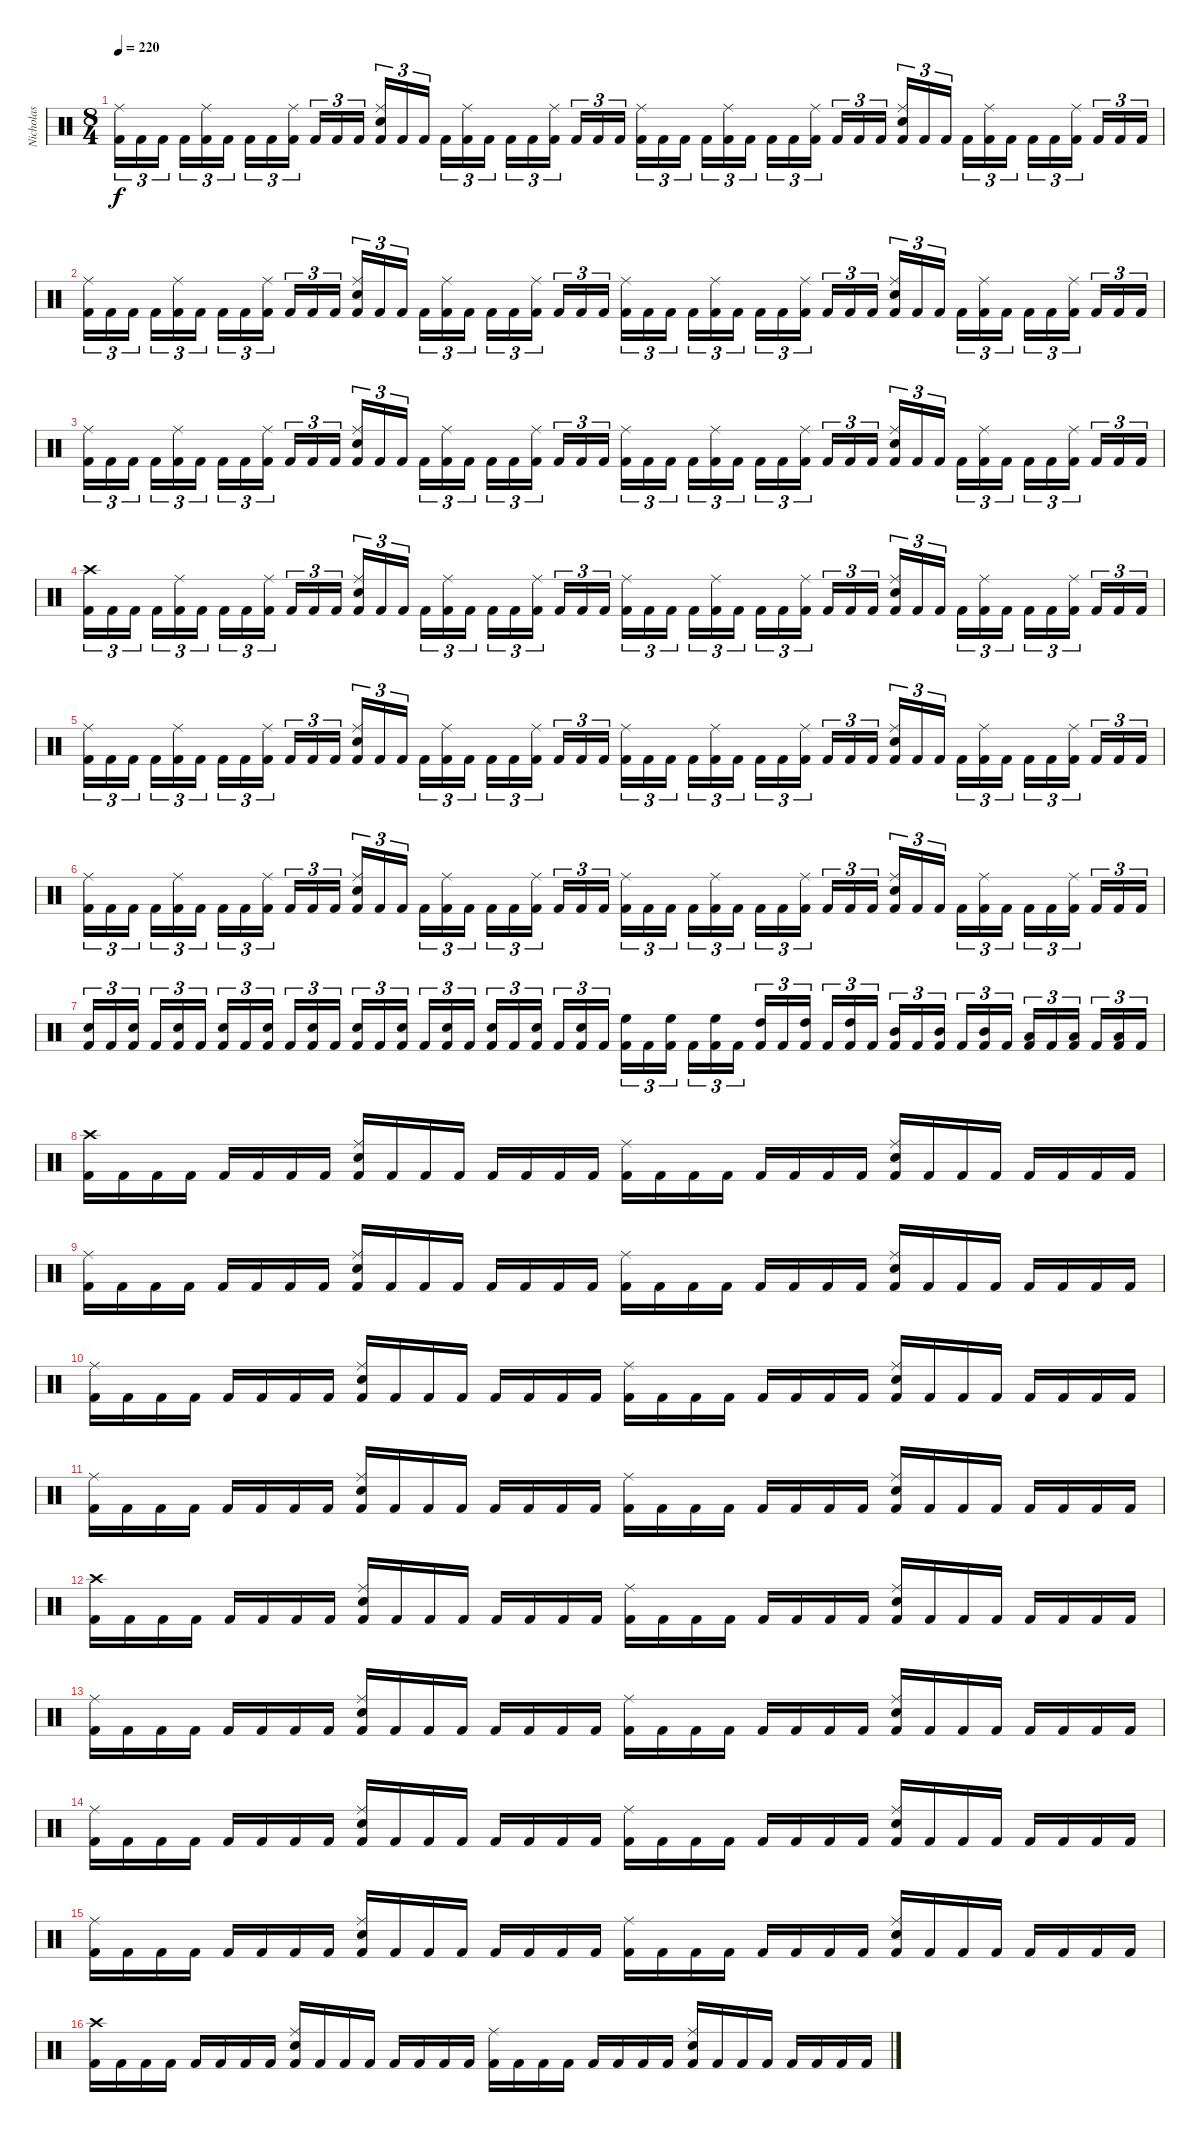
\track ("Nicholas" "Nicholas") {instrument percussion}
\staff {score}
\articulation defaults
\ts (8 4)
\tempo 220
\clef neutral
\ks c
("Kick (hit) 2" "Ride (middle)").16{tu (3 2) dy f} "Kick (hit) 2".16{tu (3 2)} "Kick (hit) 2".16{tu (3 2)} "Kick (hit) 2".16{tu (3 2)} ("Kick (hit) 2" "Ride (middle)").16{tu (3 2)} "Kick (hit) 2".16{tu (3 2)} "Kick (hit) 2".16{tu (3 2)} "Kick (hit) 2".16{tu (3 2)} ("Kick (hit) 2" "Ride (middle)").16{tu (3 2)} "Kick (hit) 2".16{tu (3 2)} "Kick (hit) 2".16{tu (3 2)} "Kick (hit) 2".16{tu (3 2)} ("Kick (hit) 2" "Snare (hit) 2" "Ride (middle)").16{tu (3 2)} "Kick (hit) 2".16{tu (3 2)} "Kick (hit) 2".16{tu (3 2)} "Kick (hit) 2".16{tu (3 2)} ("Kick (hit) 2" "Ride (middle)").16{tu (3 2)} "Kick (hit) 2".16{tu (3 2)} "Kick (hit) 2".16{tu (3 2)} "Kick (hit) 2".16{tu (3 2)} ("Kick (hit) 2" "Ride (middle)").16{tu (3 2)} "Kick (hit) 2".16{tu (3 2)} "Kick (hit) 2".16{tu (3 2)} "Kick (hit) 2".16{tu (3 2)} ("Kick (hit) 2" "Ride (middle)").16{tu (3 2)} "Kick (hit) 2".16{tu (3 2)} "Kick (hit) 2".16{tu (3 2)} "Kick (hit) 2".16{tu (3 2)} ("Kick (hit) 2" "Ride (middle)").16{tu (3 2)} "Kick (hit) 2".16{tu (3 2)} "Kick (hit) 2".16{tu (3 2)} "Kick (hit) 2".16{tu (3 2)} ("Kick (hit) 2" "Ride (middle)").16{tu (3 2)} "Kick (hit) 2".16{tu (3 2)} "Kick (hit) 2".16{tu (3 2)} "Kick (hit) 2".16{tu (3 2)} ("Kick (hit) 2" "Snare (hit) 2" "Ride (middle)").16{tu (3 2)} "Kick (hit) 2".16{tu (3 2)} "Kick (hit) 2".16{tu (3 2)} "Kick (hit) 2".16{tu (3 2)} ("Kick (hit) 2" "Ride (middle)").16{tu (3 2)} "Kick (hit) 2".16{tu (3 2)} "Kick (hit) 2".16{tu (3 2)} "Kick (hit) 2".16{tu (3 2)} ("Kick (hit) 2" "Ride (middle)").16{tu (3 2)} "Kick (hit) 2".16{tu (3 2)} "Kick (hit) 2".16{tu (3 2)} "Kick (hit) 2".16{tu (3 2)} |
("Kick (hit) 2" "Ride (middle)").16{tu (3 2)} "Kick (hit) 2".16{tu (3 2)} "Kick (hit) 2".16{tu (3 2)} "Kick (hit) 2".16{tu (3 2)} ("Kick (hit) 2" "Ride (middle)").16{tu (3 2)} "Kick (hit) 2".16{tu (3 2)} "Kick (hit) 2".16{tu (3 2)} "Kick (hit) 2".16{tu (3 2)} ("Kick (hit) 2" "Ride (middle)").16{tu (3 2)} "Kick (hit) 2".16{tu (3 2)} "Kick (hit) 2".16{tu (3 2)} "Kick (hit) 2".16{tu (3 2)} ("Kick (hit) 2" "Snare (hit) 2" "Ride (middle)").16{tu (3 2)} "Kick (hit) 2".16{tu (3 2)} "Kick (hit) 2".16{tu (3 2)} "Kick (hit) 2".16{tu (3 2)} ("Kick (hit) 2" "Ride (middle)").16{tu (3 2)} "Kick (hit) 2".16{tu (3 2)} "Kick (hit) 2".16{tu (3 2)} "Kick (hit) 2".16{tu (3 2)} ("Kick (hit) 2" "Ride (middle)").16{tu (3 2)} "Kick (hit) 2".16{tu (3 2)} "Kick (hit) 2".16{tu (3 2)} "Kick (hit) 2".16{tu (3 2)} ("Kick (hit) 2" "Ride (middle)").16{tu (3 2)} "Kick (hit) 2".16{tu (3 2)} "Kick (hit) 2".16{tu (3 2)} "Kick (hit) 2".16{tu (3 2)} ("Kick (hit) 2" "Ride (middle)").16{tu (3 2)} "Kick (hit) 2".16{tu (3 2)} "Kick (hit) 2".16{tu (3 2)} "Kick (hit) 2".16{tu (3 2)} ("Kick (hit) 2" "Ride (middle)").16{tu (3 2)} "Kick (hit) 2".16{tu (3 2)} "Kick (hit) 2".16{tu (3 2)} "Kick (hit) 2".16{tu (3 2)} ("Kick (hit) 2" "Snare (hit) 2" "Ride (middle)").16{tu (3 2)} "Kick (hit) 2".16{tu (3 2)} "Kick (hit) 2".16{tu (3 2)} "Kick (hit) 2".16{tu (3 2)} ("Kick (hit) 2" "Ride (middle)").16{tu (3 2)} "Kick (hit) 2".16{tu (3 2)} "Kick (hit) 2".16{tu (3 2)} "Kick (hit) 2".16{tu (3 2)} ("Kick (hit) 2" "Ride (middle)").16{tu (3 2)} "Kick (hit) 2".16{tu (3 2)} "Kick (hit) 2".16{tu (3 2)} "Kick (hit) 2".16{tu (3 2)} |
("Kick (hit) 2" "Ride (middle)").16{tu (3 2)} "Kick (hit) 2".16{tu (3 2)} "Kick (hit) 2".16{tu (3 2)} "Kick (hit) 2".16{tu (3 2)} ("Kick (hit) 2" "Ride (middle)").16{tu (3 2)} "Kick (hit) 2".16{tu (3 2)} "Kick (hit) 2".16{tu (3 2)} "Kick (hit) 2".16{tu (3 2)} ("Kick (hit) 2" "Ride (middle)").16{tu (3 2)} "Kick (hit) 2".16{tu (3 2)} "Kick (hit) 2".16{tu (3 2)} "Kick (hit) 2".16{tu (3 2)} ("Kick (hit) 2" "Snare (hit) 2" "Ride (middle)").16{tu (3 2)} "Kick (hit) 2".16{tu (3 2)} "Kick (hit) 2".16{tu (3 2)} "Kick (hit) 2".16{tu (3 2)} ("Kick (hit) 2" "Ride (middle)").16{tu (3 2)} "Kick (hit) 2".16{tu (3 2)} "Kick (hit) 2".16{tu (3 2)} "Kick (hit) 2".16{tu (3 2)} ("Kick (hit) 2" "Ride (middle)").16{tu (3 2)} "Kick (hit) 2".16{tu (3 2)} "Kick (hit) 2".16{tu (3 2)} "Kick (hit) 2".16{tu (3 2)} ("Kick (hit) 2" "Ride (middle)").16{tu (3 2)} "Kick (hit) 2".16{tu (3 2)} "Kick (hit) 2".16{tu (3 2)} "Kick (hit) 2".16{tu (3 2)} ("Kick (hit) 2" "Ride (middle)").16{tu (3 2)} "Kick (hit) 2".16{tu (3 2)} "Kick (hit) 2".16{tu (3 2)} "Kick (hit) 2".16{tu (3 2)} ("Kick (hit) 2" "Ride (middle)").16{tu (3 2)} "Kick (hit) 2".16{tu (3 2)} "Kick (hit) 2".16{tu (3 2)} "Kick (hit) 2".16{tu (3 2)} ("Kick (hit) 2" "Snare (hit) 2" "Ride (middle)").16{tu (3 2)} "Kick (hit) 2".16{tu (3 2)} "Kick (hit) 2".16{tu (3 2)} "Kick (hit) 2".16{tu (3 2)} ("Kick (hit) 2" "Ride (middle)").16{tu (3 2)} "Kick (hit) 2".16{tu (3 2)} "Kick (hit) 2".16{tu (3 2)} "Kick (hit) 2".16{tu (3 2)} ("Kick (hit) 2" "Ride (middle)").16{tu (3 2)} "Kick (hit) 2".16{tu (3 2)} "Kick (hit) 2".16{tu (3 2)} "Kick (hit) 2".16{tu (3 2)} |
("Kick (hit) 2" "Crash high (hit)").16{tu (3 2)} "Kick (hit) 2".16{tu (3 2)} "Kick (hit) 2".16{tu (3 2)} "Kick (hit) 2".16{tu (3 2)} ("Kick (hit) 2" "Ride (middle)").16{tu (3 2)} "Kick (hit) 2".16{tu (3 2)} "Kick (hit) 2".16{tu (3 2)} "Kick (hit) 2".16{tu (3 2)} ("Kick (hit) 2" "Ride (middle)").16{tu (3 2)} "Kick (hit) 2".16{tu (3 2)} "Kick (hit) 2".16{tu (3 2)} "Kick (hit) 2".16{tu (3 2)} ("Kick (hit) 2" "Snare (hit) 2" "Ride (middle)").16{tu (3 2)} "Kick (hit) 2".16{tu (3 2)} "Kick (hit) 2".16{tu (3 2)} "Kick (hit) 2".16{tu (3 2)} ("Kick (hit) 2" "Ride (middle)").16{tu (3 2)} "Kick (hit) 2".16{tu (3 2)} "Kick (hit) 2".16{tu (3 2)} "Kick (hit) 2".16{tu (3 2)} ("Kick (hit) 2" "Ride (middle)").16{tu (3 2)} "Kick (hit) 2".16{tu (3 2)} "Kick (hit) 2".16{tu (3 2)} "Kick (hit) 2".16{tu (3 2)} ("Kick (hit) 2" "Ride (middle)").16{tu (3 2)} "Kick (hit) 2".16{tu (3 2)} "Kick (hit) 2".16{tu (3 2)} "Kick (hit) 2".16{tu (3 2)} ("Kick (hit) 2" "Ride (middle)").16{tu (3 2)} "Kick (hit) 2".16{tu (3 2)} "Kick (hit) 2".16{tu (3 2)} "Kick (hit) 2".16{tu (3 2)} ("Kick (hit) 2" "Ride (middle)").16{tu (3 2)} "Kick (hit) 2".16{tu (3 2)} "Kick (hit) 2".16{tu (3 2)} "Kick (hit) 2".16{tu (3 2)} ("Kick (hit) 2" "Snare (hit) 2" "Ride (middle)").16{tu (3 2)} "Kick (hit) 2".16{tu (3 2)} "Kick (hit) 2".16{tu (3 2)} "Kick (hit) 2".16{tu (3 2)} ("Kick (hit) 2" "Ride (middle)").16{tu (3 2)} "Kick (hit) 2".16{tu (3 2)} "Kick (hit) 2".16{tu (3 2)} "Kick (hit) 2".16{tu (3 2)} ("Kick (hit) 2" "Ride (middle)").16{tu (3 2)} "Kick (hit) 2".16{tu (3 2)} "Kick (hit) 2".16{tu (3 2)} "Kick (hit) 2".16{tu (3 2)} |
("Kick (hit) 2" "Ride (middle)").16{tu (3 2)} "Kick (hit) 2".16{tu (3 2)} "Kick (hit) 2".16{tu (3 2)} "Kick (hit) 2".16{tu (3 2)} ("Kick (hit) 2" "Ride (middle)").16{tu (3 2)} "Kick (hit) 2".16{tu (3 2)} "Kick (hit) 2".16{tu (3 2)} "Kick (hit) 2".16{tu (3 2)} ("Kick (hit) 2" "Ride (middle)").16{tu (3 2)} "Kick (hit) 2".16{tu (3 2)} "Kick (hit) 2".16{tu (3 2)} "Kick (hit) 2".16{tu (3 2)} ("Kick (hit) 2" "Snare (hit) 2" "Ride (middle)").16{tu (3 2)} "Kick (hit) 2".16{tu (3 2)} "Kick (hit) 2".16{tu (3 2)} "Kick (hit) 2".16{tu (3 2)} ("Kick (hit) 2" "Ride (middle)").16{tu (3 2)} "Kick (hit) 2".16{tu (3 2)} "Kick (hit) 2".16{tu (3 2)} "Kick (hit) 2".16{tu (3 2)} ("Kick (hit) 2" "Ride (middle)").16{tu (3 2)} "Kick (hit) 2".16{tu (3 2)} "Kick (hit) 2".16{tu (3 2)} "Kick (hit) 2".16{tu (3 2)} ("Kick (hit) 2" "Ride (middle)").16{tu (3 2)} "Kick (hit) 2".16{tu (3 2)} "Kick (hit) 2".16{tu (3 2)} "Kick (hit) 2".16{tu (3 2)} ("Kick (hit) 2" "Ride (middle)").16{tu (3 2)} "Kick (hit) 2".16{tu (3 2)} "Kick (hit) 2".16{tu (3 2)} "Kick (hit) 2".16{tu (3 2)} ("Kick (hit) 2" "Ride (middle)").16{tu (3 2)} "Kick (hit) 2".16{tu (3 2)} "Kick (hit) 2".16{tu (3 2)} "Kick (hit) 2".16{tu (3 2)} ("Kick (hit) 2" "Snare (hit) 2" "Ride (middle)").16{tu (3 2)} "Kick (hit) 2".16{tu (3 2)} "Kick (hit) 2".16{tu (3 2)} "Kick (hit) 2".16{tu (3 2)} ("Kick (hit) 2" "Ride (middle)").16{tu (3 2)} "Kick (hit) 2".16{tu (3 2)} "Kick (hit) 2".16{tu (3 2)} "Kick (hit) 2".16{tu (3 2)} ("Kick (hit) 2" "Ride (middle)").16{tu (3 2)} "Kick (hit) 2".16{tu (3 2)} "Kick (hit) 2".16{tu (3 2)} "Kick (hit) 2".16{tu (3 2)} |
("Kick (hit) 2" "Ride (middle)").16{tu (3 2)} "Kick (hit) 2".16{tu (3 2)} "Kick (hit) 2".16{tu (3 2)} "Kick (hit) 2".16{tu (3 2)} ("Kick (hit) 2" "Ride (middle)").16{tu (3 2)} "Kick (hit) 2".16{tu (3 2)} "Kick (hit) 2".16{tu (3 2)} "Kick (hit) 2".16{tu (3 2)} ("Kick (hit) 2" "Ride (middle)").16{tu (3 2)} "Kick (hit) 2".16{tu (3 2)} "Kick (hit) 2".16{tu (3 2)} "Kick (hit) 2".16{tu (3 2)} ("Kick (hit) 2" "Snare (hit) 2" "Ride (middle)").16{tu (3 2)} "Kick (hit) 2".16{tu (3 2)} "Kick (hit) 2".16{tu (3 2)} "Kick (hit) 2".16{tu (3 2)} ("Kick (hit) 2" "Ride (middle)").16{tu (3 2)} "Kick (hit) 2".16{tu (3 2)} "Kick (hit) 2".16{tu (3 2)} "Kick (hit) 2".16{tu (3 2)} ("Kick (hit) 2" "Ride (middle)").16{tu (3 2)} "Kick (hit) 2".16{tu (3 2)} "Kick (hit) 2".16{tu (3 2)} "Kick (hit) 2".16{tu (3 2)} ("Kick (hit) 2" "Ride (middle)").16{tu (3 2)} "Kick (hit) 2".16{tu (3 2)} "Kick (hit) 2".16{tu (3 2)} "Kick (hit) 2".16{tu (3 2)} ("Kick (hit) 2" "Ride (middle)").16{tu (3 2)} "Kick (hit) 2".16{tu (3 2)} "Kick (hit) 2".16{tu (3 2)} "Kick (hit) 2".16{tu (3 2)} ("Kick (hit) 2" "Ride (middle)").16{tu (3 2)} "Kick (hit) 2".16{tu (3 2)} "Kick (hit) 2".16{tu (3 2)} "Kick (hit) 2".16{tu (3 2)} ("Kick (hit) 2" "Snare (hit) 2" "Ride (middle)").16{tu (3 2)} "Kick (hit) 2".16{tu (3 2)} "Kick (hit) 2".16{tu (3 2)} "Kick (hit) 2".16{tu (3 2)} ("Kick (hit) 2" "Ride (middle)").16{tu (3 2)} "Kick (hit) 2".16{tu (3 2)} "Kick (hit) 2".16{tu (3 2)} "Kick (hit) 2".16{tu (3 2)} ("Kick (hit) 2" "Ride (middle)").16{tu (3 2)} "Kick (hit) 2".16{tu (3 2)} "Kick (hit) 2".16{tu (3 2)} "Kick (hit) 2".16{tu (3 2)} |
("Kick (hit) 2" "Snare (hit) 2").16{tu (3 2)} "Kick (hit) 2".16{tu (3 2)} ("Kick (hit) 2" "Snare (hit) 2").16{tu (3 2)} "Kick (hit) 2".16{tu (3 2)} ("Kick (hit) 2" "Snare (hit) 2").16{tu (3 2)} "Kick (hit) 2".16{tu (3 2)} ("Kick (hit) 2" "Snare (hit) 2").16{tu (3 2)} "Kick (hit) 2".16{tu (3 2)} ("Kick (hit) 2" "Snare (hit) 2").16{tu (3 2)} "Kick (hit) 2".16{tu (3 2)} ("Kick (hit) 2" "Snare (hit) 2").16{tu (3 2)} "Kick (hit) 2".16{tu (3 2)} ("Kick (hit) 2" "Snare (hit) 2").16{tu (3 2)} "Kick (hit) 2".16{tu (3 2)} ("Kick (hit) 2" "Snare (hit) 2").16{tu (3 2)} "Kick (hit) 2".16{tu (3 2)} ("Kick (hit) 2" "Snare (hit) 2").16{tu (3 2)} "Kick (hit) 2".16{tu (3 2)} ("Kick (hit) 2" "Snare (hit) 2").16{tu (3 2)} "Kick (hit) 2".16{tu (3 2)} ("Kick (hit) 2" "Snare (hit) 2").16{tu (3 2)} "Kick (hit) 2".16{tu (3 2)} ("Kick (hit) 2" "Snare (hit) 2").16{tu (3 2)} "Kick (hit) 2".16{tu (3 2)} ("Kick (hit) 2" "High Floor Tom (hit)").16{tu (3 2)} "Kick (hit) 2".16{tu (3 2)} ("Kick (hit) 2" "High Floor Tom (hit)").16{tu (3 2)} "Kick (hit) 2".16{tu (3 2)} ("Kick (hit) 2" "High Floor Tom (hit)").16{tu (3 2)} "Kick (hit) 2".16{tu (3 2)} ("Kick (hit) 2" "High Tom (hit)").16{tu (3 2)} "Kick (hit) 2".16{tu (3 2)} ("Kick (hit) 2" "High Tom (hit)").16{tu (3 2)} "Kick (hit) 2".16{tu (3 2)} ("Kick (hit) 2" "High Tom (hit)").16{tu (3 2)} "Kick (hit) 2".16{tu (3 2)} ("Kick (hit) 2" "Mid Tom (hit)").16{tu (3 2)} "Kick (hit) 2".16{tu (3 2)} ("Kick (hit) 2" "Mid Tom (hit)").16{tu (3 2)} "Kick (hit) 2".16{tu (3 2)} ("Kick (hit) 2" "Mid Tom (hit)").16{tu (3 2)} "Kick (hit) 2".16{tu (3 2)} ("Kick (hit) 2" "Low Tom (hit)").16{tu (3 2)} "Kick (hit) 2".16{tu (3 2)} ("Kick (hit) 2" "Low Tom (hit)").16{tu (3 2)} "Kick (hit) 2".16{tu (3 2)} ("Kick (hit) 2" "Low Tom (hit)").16{tu (3 2)} "Kick (hit) 2".16{tu (3 2)} |
("Kick (hit) 2" "Crash high (hit)").16 "Kick (hit) 2".16 "Kick (hit) 2".16 "Kick (hit) 2".16 "Kick (hit) 2".16 "Kick (hit) 2".16 "Kick (hit) 2".16 "Kick (hit) 2".16 ("Kick (hit) 2" "Snare (hit) 2" "Ride (middle)").16 "Kick (hit) 2".16 "Kick (hit) 2".16 "Kick (hit) 2".16 "Kick (hit) 2".16 "Kick (hit) 2".16 "Kick (hit) 2".16 "Kick (hit) 2".16 ("Kick (hit) 2" "Ride (middle)").16 "Kick (hit) 2".16 "Kick (hit) 2".16 "Kick (hit) 2".16 "Kick (hit) 2".16 "Kick (hit) 2".16 "Kick (hit) 2".16 "Kick (hit) 2".16 ("Kick (hit) 2" "Snare (hit) 2" "Ride (middle)").16 "Kick (hit) 2".16 "Kick (hit) 2".16 "Kick (hit) 2".16 "Kick (hit) 2".16 "Kick (hit) 2".16 "Kick (hit) 2".16 "Kick (hit) 2".16 |
("Kick (hit) 2" "Ride (middle)").16 "Kick (hit) 2".16 "Kick (hit) 2".16 "Kick (hit) 2".16 "Kick (hit) 2".16 "Kick (hit) 2".16 "Kick (hit) 2".16 "Kick (hit) 2".16 ("Kick (hit) 2" "Snare (hit) 2" "Ride (middle)").16 "Kick (hit) 2".16 "Kick (hit) 2".16 "Kick (hit) 2".16 "Kick (hit) 2".16 "Kick (hit) 2".16 "Kick (hit) 2".16 "Kick (hit) 2".16 ("Kick (hit) 2" "Ride (middle)").16 "Kick (hit) 2".16 "Kick (hit) 2".16 "Kick (hit) 2".16 "Kick (hit) 2".16 "Kick (hit) 2".16 "Kick (hit) 2".16 "Kick (hit) 2".16 ("Kick (hit) 2" "Snare (hit) 2" "Ride (middle)").16 "Kick (hit) 2".16 "Kick (hit) 2".16 "Kick (hit) 2".16 "Kick (hit) 2".16 "Kick (hit) 2".16 "Kick (hit) 2".16 "Kick (hit) 2".16 |
("Kick (hit) 2" "Ride (middle)").16 "Kick (hit) 2".16 "Kick (hit) 2".16 "Kick (hit) 2".16 "Kick (hit) 2".16 "Kick (hit) 2".16 "Kick (hit) 2".16 "Kick (hit) 2".16 ("Kick (hit) 2" "Snare (hit) 2" "Ride (middle)").16 "Kick (hit) 2".16 "Kick (hit) 2".16 "Kick (hit) 2".16 "Kick (hit) 2".16 "Kick (hit) 2".16 "Kick (hit) 2".16 "Kick (hit) 2".16 ("Kick (hit) 2" "Ride (middle)").16 "Kick (hit) 2".16 "Kick (hit) 2".16 "Kick (hit) 2".16 "Kick (hit) 2".16 "Kick (hit) 2".16 "Kick (hit) 2".16 "Kick (hit) 2".16 ("Kick (hit) 2" "Snare (hit) 2" "Ride (middle)").16 "Kick (hit) 2".16 "Kick (hit) 2".16 "Kick (hit) 2".16 "Kick (hit) 2".16 "Kick (hit) 2".16 "Kick (hit) 2".16 "Kick (hit) 2".16 |
("Kick (hit) 2" "Ride (middle)").16 "Kick (hit) 2".16 "Kick (hit) 2".16 "Kick (hit) 2".16 "Kick (hit) 2".16 "Kick (hit) 2".16 "Kick (hit) 2".16 "Kick (hit) 2".16 ("Kick (hit) 2" "Snare (hit) 2" "Ride (middle)").16 "Kick (hit) 2".16 "Kick (hit) 2".16 "Kick (hit) 2".16 "Kick (hit) 2".16 "Kick (hit) 2".16 "Kick (hit) 2".16 "Kick (hit) 2".16 ("Kick (hit) 2" "Ride (middle)").16 "Kick (hit) 2".16 "Kick (hit) 2".16 "Kick (hit) 2".16 "Kick (hit) 2".16 "Kick (hit) 2".16 "Kick (hit) 2".16 "Kick (hit) 2".16 ("Kick (hit) 2" "Snare (hit) 2" "Ride (middle)").16 "Kick (hit) 2".16 "Kick (hit) 2".16 "Kick (hit) 2".16 "Kick (hit) 2".16 "Kick (hit) 2".16 "Kick (hit) 2".16 "Kick (hit) 2".16 |
("Kick (hit) 2" "Crash high (hit)").16 "Kick (hit) 2".16 "Kick (hit) 2".16 "Kick (hit) 2".16 "Kick (hit) 2".16 "Kick (hit) 2".16 "Kick (hit) 2".16 "Kick (hit) 2".16 ("Kick (hit) 2" "Snare (hit) 2" "Ride (middle)").16 "Kick (hit) 2".16 "Kick (hit) 2".16 "Kick (hit) 2".16 "Kick (hit) 2".16 "Kick (hit) 2".16 "Kick (hit) 2".16 "Kick (hit) 2".16 ("Kick (hit) 2" "Ride (middle)").16 "Kick (hit) 2".16 "Kick (hit) 2".16 "Kick (hit) 2".16 "Kick (hit) 2".16 "Kick (hit) 2".16 "Kick (hit) 2".16 "Kick (hit) 2".16 ("Kick (hit) 2" "Snare (hit) 2" "Ride (middle)").16 "Kick (hit) 2".16 "Kick (hit) 2".16 "Kick (hit) 2".16 "Kick (hit) 2".16 "Kick (hit) 2".16 "Kick (hit) 2".16 "Kick (hit) 2".16 |
("Kick (hit) 2" "Ride (middle)").16 "Kick (hit) 2".16 "Kick (hit) 2".16 "Kick (hit) 2".16 "Kick (hit) 2".16 "Kick (hit) 2".16 "Kick (hit) 2".16 "Kick (hit) 2".16 ("Kick (hit) 2" "Snare (hit) 2" "Ride (middle)").16 "Kick (hit) 2".16 "Kick (hit) 2".16 "Kick (hit) 2".16 "Kick (hit) 2".16 "Kick (hit) 2".16 "Kick (hit) 2".16 "Kick (hit) 2".16 ("Kick (hit) 2" "Ride (middle)").16 "Kick (hit) 2".16 "Kick (hit) 2".16 "Kick (hit) 2".16 "Kick (hit) 2".16 "Kick (hit) 2".16 "Kick (hit) 2".16 "Kick (hit) 2".16 ("Kick (hit) 2" "Snare (hit) 2" "Ride (middle)").16 "Kick (hit) 2".16 "Kick (hit) 2".16 "Kick (hit) 2".16 "Kick (hit) 2".16 "Kick (hit) 2".16 "Kick (hit) 2".16 "Kick (hit) 2".16 |
("Kick (hit) 2" "Ride (middle)").16 "Kick (hit) 2".16 "Kick (hit) 2".16 "Kick (hit) 2".16 "Kick (hit) 2".16 "Kick (hit) 2".16 "Kick (hit) 2".16 "Kick (hit) 2".16 ("Kick (hit) 2" "Snare (hit) 2" "Ride (middle)").16 "Kick (hit) 2".16 "Kick (hit) 2".16 "Kick (hit) 2".16 "Kick (hit) 2".16 "Kick (hit) 2".16 "Kick (hit) 2".16 "Kick (hit) 2".16 ("Kick (hit) 2" "Ride (middle)").16 "Kick (hit) 2".16 "Kick (hit) 2".16 "Kick (hit) 2".16 "Kick (hit) 2".16 "Kick (hit) 2".16 "Kick (hit) 2".16 "Kick (hit) 2".16 ("Kick (hit) 2" "Snare (hit) 2" "Ride (middle)").16 "Kick (hit) 2".16 "Kick (hit) 2".16 "Kick (hit) 2".16 "Kick (hit) 2".16 "Kick (hit) 2".16 "Kick (hit) 2".16 "Kick (hit) 2".16 |
("Kick (hit) 2" "Ride (middle)").16 "Kick (hit) 2".16 "Kick (hit) 2".16 "Kick (hit) 2".16 "Kick (hit) 2".16 "Kick (hit) 2".16 "Kick (hit) 2".16 "Kick (hit) 2".16 ("Kick (hit) 2" "Snare (hit) 2" "Ride (middle)").16 "Kick (hit) 2".16 "Kick (hit) 2".16 "Kick (hit) 2".16 "Kick (hit) 2".16 "Kick (hit) 2".16 "Kick (hit) 2".16 "Kick (hit) 2".16 ("Kick (hit) 2" "Ride (middle)").16 "Kick (hit) 2".16 "Kick (hit) 2".16 "Kick (hit) 2".16 "Kick (hit) 2".16 "Kick (hit) 2".16 "Kick (hit) 2".16 "Kick (hit) 2".16 ("Kick (hit) 2" "Snare (hit) 2" "Ride (middle)").16 "Kick (hit) 2".16 "Kick (hit) 2".16 "Kick (hit) 2".16 "Kick (hit) 2".16 "Kick (hit) 2".16 "Kick (hit) 2".16 "Kick (hit) 2".16 |
("Kick (hit) 2" "Crash high (hit)").16 "Kick (hit) 2".16 "Kick (hit) 2".16 "Kick (hit) 2".16 "Kick (hit) 2".16 "Kick (hit) 2".16 "Kick (hit) 2".16 "Kick (hit) 2".16 ("Kick (hit) 2" "Snare (hit) 2" "Ride (middle)").16 "Kick (hit) 2".16 "Kick (hit) 2".16 "Kick (hit) 2".16 "Kick (hit) 2".16 "Kick (hit) 2".16 "Kick (hit) 2".16 "Kick (hit) 2".16 ("Kick (hit) 2" "Ride (middle)").16 "Kick (hit) 2".16 "Kick (hit) 2".16 "Kick (hit) 2".16 "Kick (hit) 2".16 "Kick (hit) 2".16 "Kick (hit) 2".16 "Kick (hit) 2".16 ("Kick (hit) 2" "Snare (hit) 2" "Ride (middle)").16 "Kick (hit) 2".16 "Kick (hit) 2".16 "Kick (hit) 2".16 "Kick (hit) 2".16 "Kick (hit) 2".16 "Kick (hit) 2".16 "Kick (hit) 2".16
